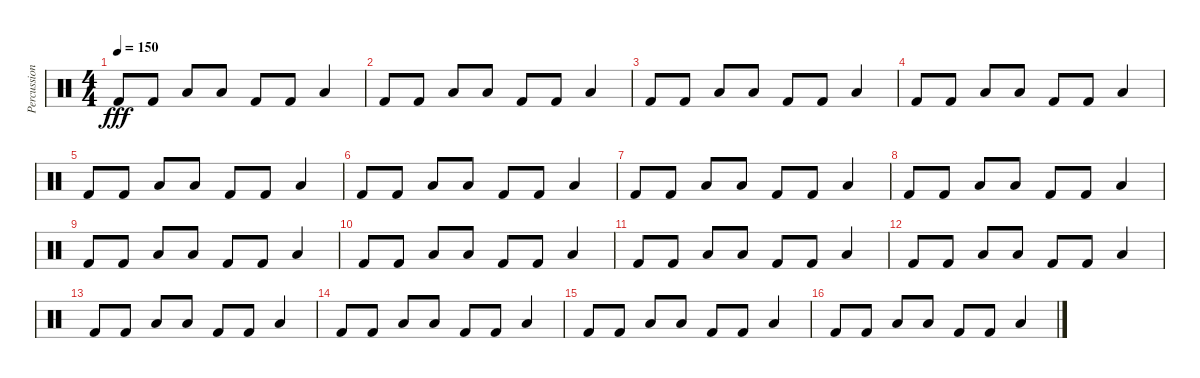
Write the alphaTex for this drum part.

\track ("Percussion" "Percussion") {instrument percussion}
\staff {score}
\articulation defaults
\ts (4 4)
\tempo 150
\clef neutral
\ks c "Kick (hit) 2".8{dy fff} "Kick (hit) 2".8 "Low Tom (hit)".8 "Low Tom (hit)".8 "Kick (hit) 2".8 "Kick (hit) 2".8 "Low Floor Tom (hit)".4
|
"Kick (hit) 2".8 "Kick (hit) 2".8 "Low Tom (hit)".8 "Low Tom (hit)".8 "Kick (hit) 2".8 "Kick (hit) 2".8 "Low Floor Tom (hit)".4 |
"Kick (hit) 2".8 "Kick (hit) 2".8 "Low Tom (hit)".8 "Low Tom (hit)".8 "Kick (hit) 2".8 "Kick (hit) 2".8 "Low Floor Tom (hit)".4 |
"Kick (hit) 2".8 "Kick (hit) 2".8 "Low Tom (hit)".8 "Low Tom (hit)".8 "Kick (hit) 2".8 "Kick (hit) 2".8 "Low Floor Tom (hit)".4 |
"Kick (hit) 2".8 "Kick (hit) 2".8 "Low Tom (hit)".8 "Low Tom (hit)".8 "Kick (hit) 2".8 "Kick (hit) 2".8 "Low Floor Tom (hit)".4 |
"Kick (hit) 2".8 "Kick (hit) 2".8 "Low Tom (hit)".8 "Low Tom (hit)".8 "Kick (hit) 2".8 "Kick (hit) 2".8 "Low Floor Tom (hit)".4 |
"Kick (hit) 2".8 "Kick (hit) 2".8 "Low Tom (hit)".8 "Low Tom (hit)".8 "Kick (hit) 2".8 "Kick (hit) 2".8 "Low Floor Tom (hit)".4 |
"Kick (hit) 2".8 "Kick (hit) 2".8 "Low Tom (hit)".8 "Low Tom (hit)".8 "Kick (hit) 2".8 "Kick (hit) 2".8 "Low Floor Tom (hit)".4 |
"Kick (hit) 2".8 "Kick (hit) 2".8 "Low Tom (hit)".8 "Low Tom (hit)".8 "Kick (hit) 2".8 "Kick (hit) 2".8 "Low Floor Tom (hit)".4 |
"Kick (hit) 2".8 "Kick (hit) 2".8 "Low Tom (hit)".8 "Low Tom (hit)".8 "Kick (hit) 2".8 "Kick (hit) 2".8 "Low Floor Tom (hit)".4 |
"Kick (hit) 2".8 "Kick (hit) 2".8 "Low Tom (hit)".8 "Low Tom (hit)".8 "Kick (hit) 2".8 "Kick (hit) 2".8 "Low Floor Tom (hit)".4 |
"Kick (hit) 2".8 "Kick (hit) 2".8 "Low Tom (hit)".8 "Low Tom (hit)".8 "Kick (hit) 2".8 "Kick (hit) 2".8 "Low Floor Tom (hit)".4 |
"Kick (hit) 2".8 "Kick (hit) 2".8 "Low Tom (hit)".8 "Low Tom (hit)".8 "Kick (hit) 2".8 "Kick (hit) 2".8 "Low Floor Tom (hit)".4 |
"Kick (hit) 2".8 "Kick (hit) 2".8 "Low Tom (hit)".8 "Low Tom (hit)".8 "Kick (hit) 2".8 "Kick (hit) 2".8 "Low Floor Tom (hit)".4 |
"Kick (hit) 2".8 "Kick (hit) 2".8 "Low Tom (hit)".8 "Low Tom (hit)".8 "Kick (hit) 2".8 "Kick (hit) 2".8 "Low Floor Tom (hit)".4 |
"Kick (hit) 2".8 "Kick (hit) 2".8 "Low Tom (hit)".8 "Low Tom (hit)".8 "Kick (hit) 2".8 "Kick (hit) 2".8 "Low Floor Tom (hit)".4
